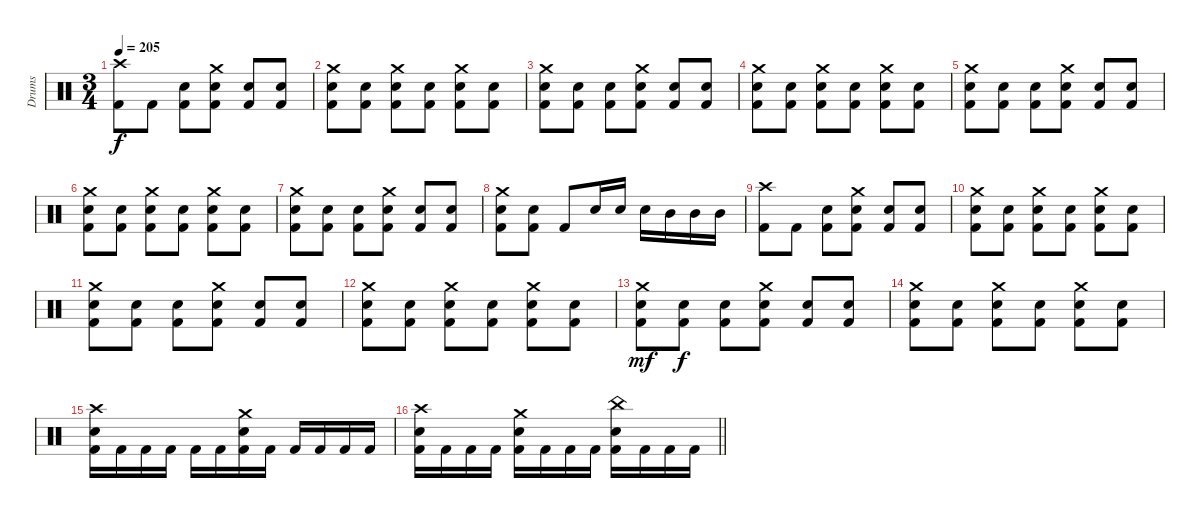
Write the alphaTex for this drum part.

\track ("Drums" "Drums") {instrument percussion}
\staff {score}
\articulation defaults
\ts (3 4)
\tempo 205
\clef neutral
\ks c
("Crash high (hit)" "Kick (hit) 2").8{dy f} "Kick (hit) 2".8 ("Snare (hit) 2" "Kick (hit) 2").8 ("Crash medium (hit)" "Snare (hit) 2" "Kick (hit) 2").8 ("Snare (hit) 2" "Kick (hit) 2").8 ("Snare (hit) 2" "Kick (hit) 2").8 |
("Crash medium (hit)" "Snare (hit) 2" "Kick (hit) 2").8 ("Snare (hit) 2" "Kick (hit) 2").8 ("Crash medium (hit)" "Snare (hit) 2" "Kick (hit) 2").8 ("Snare (hit) 2" "Kick (hit) 2").8 ("Crash medium (hit)" "Snare (hit) 2" "Kick (hit) 2").8 ("Snare (hit) 2" "Kick (hit) 2").8 |
("Crash medium (hit)" "Snare (hit) 2" "Kick (hit) 2").8 ("Snare (hit) 2" "Kick (hit) 2").8 ("Snare (hit) 2" "Kick (hit) 2").8 ("Crash medium (hit)" "Snare (hit) 2" "Kick (hit) 2").8 ("Snare (hit) 2" "Kick (hit) 2").8 ("Snare (hit) 2" "Kick (hit) 2").8 |
("Crash medium (hit)" "Snare (hit) 2" "Kick (hit) 2").8 ("Snare (hit) 2" "Kick (hit) 2").8 ("Crash medium (hit)" "Snare (hit) 2" "Kick (hit) 2").8 ("Snare (hit) 2" "Kick (hit) 2").8 ("Crash medium (hit)" "Snare (hit) 2" "Kick (hit) 2").8 ("Snare (hit) 2" "Kick (hit) 2").8 |
("Crash medium (hit)" "Snare (hit) 2" "Kick (hit) 2").8 ("Snare (hit) 2" "Kick (hit) 2").8 ("Snare (hit) 2" "Kick (hit) 2").8 ("Crash medium (hit)" "Snare (hit) 2" "Kick (hit) 2").8 ("Snare (hit) 2" "Kick (hit) 2").8 ("Snare (hit) 2" "Kick (hit) 2").8 |
("Crash medium (hit)" "Snare (hit) 2" "Kick (hit) 2").8 ("Snare (hit) 2" "Kick (hit) 2").8 ("Crash medium (hit)" "Snare (hit) 2" "Kick (hit) 2").8 ("Snare (hit) 2" "Kick (hit) 2").8 ("Crash medium (hit)" "Snare (hit) 2" "Kick (hit) 2").8 ("Snare (hit) 2" "Kick (hit) 2").8 |
("Crash medium (hit)" "Snare (hit) 2" "Kick (hit) 2").8 ("Snare (hit) 2" "Kick (hit) 2").8 ("Snare (hit) 2" "Kick (hit) 2").8 ("Crash medium (hit)" "Snare (hit) 2" "Kick (hit) 2").8 ("Snare (hit) 2" "Kick (hit) 2").8 ("Snare (hit) 2" "Kick (hit) 2").8 |
("Crash medium (hit)" "Snare (hit) 2" "Kick (hit) 2").8 ("Snare (hit) 2" "Kick (hit) 2").8 "Kick (hit) 2".8 "Snare (hit) 2".16 "Snare (hit) 2".16 "Snare (hit) 2".16 "Mid Tom (hit)".16 "Mid Tom (hit)".16 "Mid Tom (hit)".16 |
("Crash high (hit)" "Kick (hit) 2").8 "Kick (hit) 2".8 ("Snare (hit) 2" "Kick (hit) 2").8 ("Crash medium (hit)" "Snare (hit) 2" "Kick (hit) 2").8 ("Snare (hit) 2" "Kick (hit) 2").8 ("Snare (hit) 2" "Kick (hit) 2").8 |
("Crash medium (hit)" "Snare (hit) 2" "Kick (hit) 2").8 ("Snare (hit) 2" "Kick (hit) 2").8 ("Crash medium (hit)" "Snare (hit) 2" "Kick (hit) 2").8 ("Snare (hit) 2" "Kick (hit) 2").8 ("Crash medium (hit)" "Snare (hit) 2" "Kick (hit) 2").8 ("Snare (hit) 2" "Kick (hit) 2").8 |
("Crash medium (hit)" "Snare (hit) 2" "Kick (hit) 2").8 ("Snare (hit) 2" "Kick (hit) 2").8 ("Snare (hit) 2" "Kick (hit) 2").8 ("Crash medium (hit)" "Snare (hit) 2" "Kick (hit) 2").8 ("Snare (hit) 2" "Kick (hit) 2").8 ("Snare (hit) 2" "Kick (hit) 2").8 |
("Crash medium (hit)" "Snare (hit) 2" "Kick (hit) 2").8 ("Snare (hit) 2" "Kick (hit) 2").8 ("Crash medium (hit)" "Snare (hit) 2" "Kick (hit) 2").8 ("Snare (hit) 2" "Kick (hit) 2").8 ("Crash medium (hit)" "Snare (hit) 2" "Kick (hit) 2").8 ("Snare (hit) 2" "Kick (hit) 2").8 |
("Crash medium (hit)" "Snare (hit) 2" "Kick (hit) 2").8{dy mf} ("Snare (hit) 2" "Kick (hit) 2").8{dy f} ("Snare (hit) 2" "Kick (hit) 2").8 ("Crash medium (hit)" "Snare (hit) 2" "Kick (hit) 2").8 ("Snare (hit) 2" "Kick (hit) 2").8 ("Snare (hit) 2" "Kick (hit) 2").8 |
("Crash medium (hit)" "Snare (hit) 2" "Kick (hit) 2").8 ("Snare (hit) 2" "Kick (hit) 2").8 ("Crash medium (hit)" "Snare (hit) 2" "Kick (hit) 2").8 ("Snare (hit) 2" "Kick (hit) 2").8 ("Crash medium (hit)" "Snare (hit) 2" "Kick (hit) 2").8 ("Snare (hit) 2" "Kick (hit) 2").8 |
("Crash high (hit)" "Snare (hit) 2" "Kick (hit) 2").16 "Kick (hit) 2".16 "Kick (hit) 2".16 "Kick (hit) 2".16 "Kick (hit) 2".16 "Kick (hit) 2".16 ("Crash medium (hit)" "Snare (hit) 2" "Kick (hit) 2").16 "Kick (hit) 2".16 "Kick (hit) 2".16 "Kick (hit) 2".16 "Kick (hit) 2".16 "Kick (hit) 2".16 |
\barLineRight lightlight
("Crash high (hit)" "Snare (hit) 2" "Kick (hit) 2").16 "Kick (hit) 2".16 "Kick (hit) 2".16 "Kick (hit) 2".16 ("Crash medium (hit)" "Snare (hit) 2" "Kick (hit) 2").16 "Kick (hit) 2".16 "Kick (hit) 2".16 "Kick (hit) 2".16 ("China (hit)" "Snare (hit) 2" "Kick (hit) 2").16 "Kick (hit) 2".16 "Kick (hit) 2".16 "Kick (hit) 2".16
